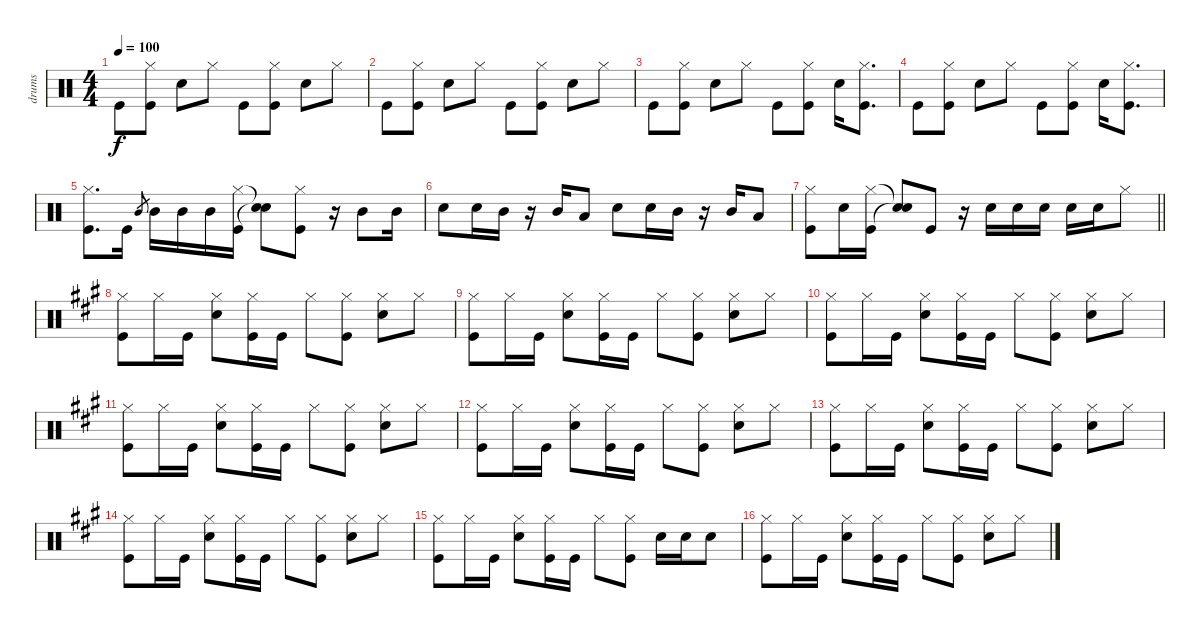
\track ("drums" "drums") {instrument percussion}
\staff {score}
\articulation defaults
\ts (4 4)
\tempo 100
\clef neutral
\ks aminor "Kick (hit)".8{dy f}
("Hi-Hat (closed)" "Kick (hit)").8 "Snare (hit) 2".8 "Hi-Hat (closed)".8 "Kick (hit)".8 ("Hi-Hat (closed)" "Kick (hit)").8 "Snare (hit) 2".8 "Hi-Hat (closed)".8 |
"Kick (hit)".8 ("Hi-Hat (closed)" "Kick (hit)").8 "Snare (hit) 2".8 "Hi-Hat (closed)".8 "Kick (hit)".8 ("Hi-Hat (closed)" "Kick (hit)").8 "Snare (hit) 2".8 "Hi-Hat (closed)".8 |
"Kick (hit)".8 ("Hi-Hat (closed)" "Kick (hit)").8 "Snare (hit) 2".8 "Hi-Hat (closed)".8 "Kick (hit)".8 ("Hi-Hat (closed)" "Kick (hit)").8 "Snare (hit) 2".16 ("Hi-Hat (closed)" "Kick (hit)").8{d} |
"Kick (hit)".8 ("Hi-Hat (closed)" "Kick (hit)").8 "Snare (hit) 2".8 "Hi-Hat (closed)".8 "Kick (hit)".8 ("Hi-Hat (closed)" "Kick (hit)").8 "Snare (hit) 2".16 ("Hi-Hat (closed)" "Kick (hit)").8{d} |
("Hi-Hat (closed)" "Kick (hit)").8{d} "Kick (hit)".16 "Mid Tom (hit)".8{gr} "Mid Tom (hit)".16 "Mid Tom (hit)".16 "Mid Tom (hit)".16 ("Hi-Hat (closed)" "Kick (hit)").16 ("Snare (hit)"{t} "Snare (hit)"{t}).8 ("Hi-Hat (closed)" "Kick (hit)").8 r.16 "Mid Tom (hit)".8 "Mid Tom (hit)".16 |
"Snare (hit) 2".8 "Snare (hit) 2".16 "Mid Tom (hit)".16 r.16 "Mid Tom (hit)".16 "Low Tom (hit)".8 "Snare (hit) 2".8 "Snare (hit) 2".16 "Mid Tom (hit)".16 r.16 "Mid Tom (hit)".16 "Low Tom (hit)".8 |
\barLineRight lightlight
("Hi-Hat (closed)" "Kick (hit)").8 "Snare (hit) 2".16 ("Hi-Hat (closed)" "Kick (hit)").16 ("Snare (hit)"{t} "Snare (hit)"{t}).8 "Kick (hit)".8 r.16 "Snare (hit) 2".16 "Snare (hit) 2".16 "Snare (hit) 2".16 "Snare (hit) 2".16 "Snare (hit) 2".16 "Hi-Hat (closed)".8 |
\ks f#minor
("Hi-Hat (closed)" "Kick (hit)").8 "Hi-Hat (closed)".16 "Kick (hit)".16 ("Hi-Hat (closed)" "Snare (hit) 2").8 ("Hi-Hat (closed)" "Kick (hit)").16 "Kick (hit)".16 "Hi-Hat (closed)".8 ("Hi-Hat (closed)" "Kick (hit)").8 ("Hi-Hat (closed)" "Snare (hit) 2").8 "Hi-Hat (closed)".8 |
("Hi-Hat (closed)" "Kick (hit)").8 "Hi-Hat (closed)".16 "Kick (hit)".16 ("Hi-Hat (closed)" "Snare (hit) 2").8 ("Hi-Hat (closed)" "Kick (hit)").16 "Kick (hit)".16 "Hi-Hat (closed)".8 ("Hi-Hat (closed)" "Kick (hit)").8 ("Hi-Hat (closed)" "Snare (hit) 2").8 "Hi-Hat (closed)".8 |
("Hi-Hat (closed)" "Kick (hit)").8 "Hi-Hat (closed)".16 "Kick (hit)".16 ("Hi-Hat (closed)" "Snare (hit) 2").8 ("Hi-Hat (closed)" "Kick (hit)").16 "Kick (hit)".16 "Hi-Hat (closed)".8 ("Hi-Hat (closed)" "Kick (hit)").8 ("Hi-Hat (closed)" "Snare (hit) 2").8 "Hi-Hat (closed)".8 |
("Hi-Hat (closed)" "Kick (hit)").8 "Hi-Hat (closed)".16 "Kick (hit)".16 ("Hi-Hat (closed)" "Snare (hit) 2").8 ("Hi-Hat (closed)" "Kick (hit)").16 "Kick (hit)".16 "Hi-Hat (closed)".8 ("Hi-Hat (closed)" "Kick (hit)").8 ("Hi-Hat (closed)" "Snare (hit) 2").8 "Hi-Hat (closed)".8 |
("Hi-Hat (closed)" "Kick (hit)").8 "Hi-Hat (closed)".16 "Kick (hit)".16 ("Hi-Hat (closed)" "Snare (hit) 2").8 ("Hi-Hat (closed)" "Kick (hit)").16 "Kick (hit)".16 "Hi-Hat (closed)".8 ("Hi-Hat (closed)" "Kick (hit)").8 ("Hi-Hat (closed)" "Snare (hit) 2").8 "Hi-Hat (closed)".8 |
("Hi-Hat (closed)" "Kick (hit)").8 "Hi-Hat (closed)".16 "Kick (hit)".16 ("Hi-Hat (closed)" "Snare (hit) 2").8 ("Hi-Hat (closed)" "Kick (hit)").16 "Kick (hit)".16 "Hi-Hat (closed)".8 ("Hi-Hat (closed)" "Kick (hit)").8 ("Hi-Hat (closed)" "Snare (hit) 2").8 "Hi-Hat (closed)".8 |
("Hi-Hat (closed)" "Kick (hit)").8 "Hi-Hat (closed)".16 "Kick (hit)".16 ("Hi-Hat (closed)" "Snare (hit) 2").8 ("Hi-Hat (closed)" "Kick (hit)").16 "Kick (hit)".16 "Hi-Hat (closed)".8 ("Hi-Hat (closed)" "Kick (hit)").8 ("Hi-Hat (closed)" "Snare (hit) 2").8 "Hi-Hat (closed)".8 |
("Hi-Hat (closed)" "Kick (hit)").8 "Hi-Hat (closed)".16 "Kick (hit)".16 ("Hi-Hat (closed)" "Snare (hit) 2").8 ("Hi-Hat (closed)" "Kick (hit)").16 "Kick (hit)".16 "Hi-Hat (closed)".8 ("Hi-Hat (closed)" "Kick (hit)").8 "Snare (hit) 2".16 "Snare (hit) 2".16 "Snare (hit) 2".8 |
("Hi-Hat (closed)" "Kick (hit)").8 "Hi-Hat (closed)".16 "Kick (hit)".16 ("Hi-Hat (closed)" "Snare (hit) 2").8 ("Hi-Hat (closed)" "Kick (hit)").16 "Kick (hit)".16 "Hi-Hat (closed)".8 ("Hi-Hat (closed)" "Kick (hit)").8 ("Hi-Hat (closed)" "Snare (hit) 2").8 "Hi-Hat (closed)".8
